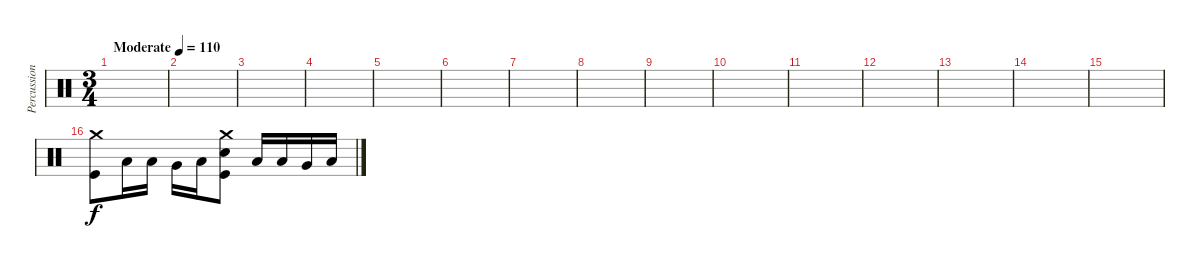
\track ("Percussion" "Percussion") {instrument percussion}
\staff {score}
\articulation defaults
\ts (3 4)
\tempo (110 "Moderate")
\clef neutral
\ks c
|
|
|
|
|
|
|
|
|
|
|
|
|
|
|
("Crash medium (hit)" "Kick (hit)").8 "Low Tom (hit)".16 "Low Tom (hit)".16 "Very Low Tom (hit)".16 "Low Floor Tom (hit)".16 ("Snare (hit) 2" "Crash medium (hit)" "Kick (hit)").8 "Low Tom (hit)".16 "Low Tom (hit)".16 "Very Low Tom (hit)".16 "Low Floor Tom (hit)".16
